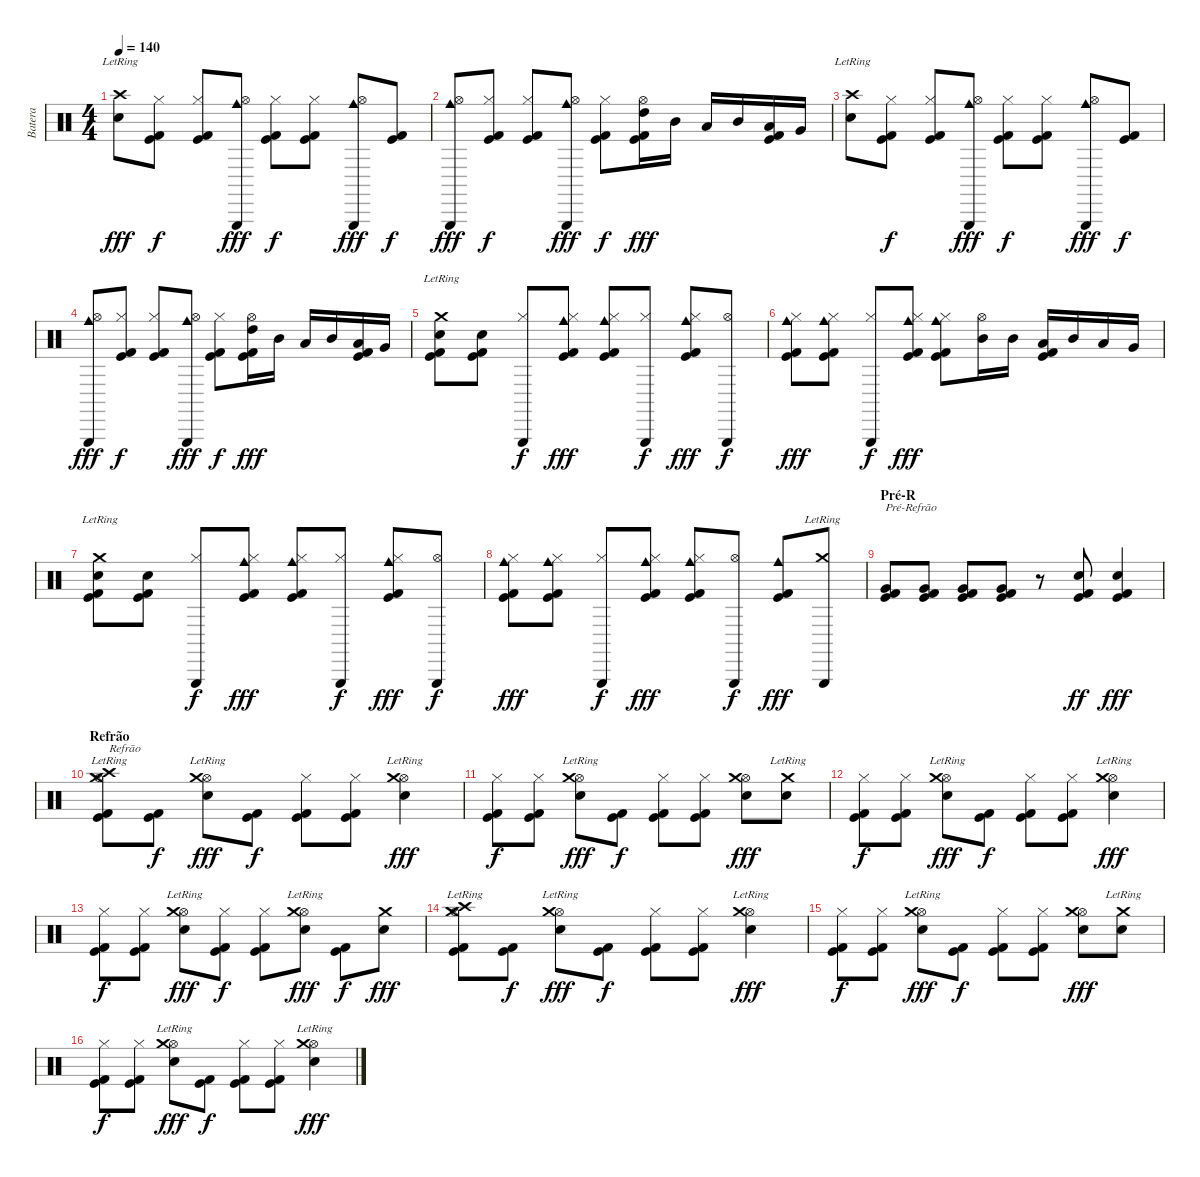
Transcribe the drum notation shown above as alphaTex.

\track ("Batera" "Batera") {instrument percussion}
\staff {score}
\articulation defaults
\ts (4 4)
\tempo 140
\clef neutral
\ks c
("Metronome (bell)" "Crash high (hit)"{lr}).8{dy fff} ("Hi-Hat (closed)" "Kick (hit)" "Kick (hit) 2").8{dy f} ("Hi-Hat (closed)" "Kick (hit)" "Kick (hit) 2").8 ("Hi-Hat (open)" "Cowbell medium (hit)" "Triangle (hit)").8{dy fff} ("Hi-Hat (closed)" "Kick (hit)" "Kick (hit) 2").8{dy f} ("Hi-Hat (closed)" "Kick (hit)" "Kick (hit) 2").8 ("Hi-Hat (open)" "Cowbell medium (hit)" "Triangle (hit)").8{dy fff} ("Kick (hit)" "Kick (hit) 2").8{dy f} |
("Hi-Hat (open)" "Cowbell medium (hit)" "Triangle (hit)").8{dy fff} ("Hi-Hat (closed)" "Kick (hit)" "Kick (hit) 2").8{dy f} ("Hi-Hat (closed)" "Kick (hit)" "Kick (hit) 2").8 ("Hi-Hat (open)" "Cowbell medium (hit)" "Triangle (hit)").8{dy fff} ("Hi-Hat (closed)" "Kick (hit)" "Kick (hit) 2").8{dy f} ("Hi-Hat (open)" "Kick (hit)" "High Tom (hit)" "Kick (hit) 2").16{dy fff} "Mid Tom (hit)".16 "Low Tom (hit)".16 "Mid Tom (hit)".16 ("Kick (hit)" "Low Tom (hit)" "Kick (hit) 2").16 "Very Low Tom (hit)".16 |
("Metronome (bell)" "Crash high (hit)"{lr}).8 ("Hi-Hat (closed)" "Kick (hit)" "Kick (hit) 2").8{dy f} ("Hi-Hat (closed)" "Kick (hit)" "Kick (hit) 2").8 ("Hi-Hat (open)" "Cowbell medium (hit)" "Triangle (hit)").8{dy fff} ("Hi-Hat (closed)" "Kick (hit)" "Kick (hit) 2").8{dy f} ("Hi-Hat (closed)" "Kick (hit)" "Kick (hit) 2").8 ("Hi-Hat (open)" "Cowbell medium (hit)" "Triangle (hit)").8{dy fff} ("Kick (hit)" "Kick (hit) 2").8{dy f} |
("Hi-Hat (open)" "Cowbell medium (hit)" "Triangle (hit)").8{dy fff} ("Hi-Hat (closed)" "Kick (hit)" "Kick (hit) 2").8{dy f} ("Hi-Hat (closed)" "Kick (hit)" "Kick (hit) 2").8 ("Hi-Hat (open)" "Cowbell medium (hit)" "Triangle (hit)").8{dy fff} ("Hi-Hat (closed)" "Kick (hit)" "Kick (hit) 2").8{dy f} ("Hi-Hat (open)" "Kick (hit)" "High Tom (hit)" "Kick (hit) 2").16{dy fff} "Mid Tom (hit)".16 "Low Tom (hit)".16 "Mid Tom (hit)".16 ("Kick (hit)" "Low Tom (hit)" "Kick (hit) 2").16 "Very Low Tom (hit)".16 |
("Kick (hit)" "Electric Snare (hit)" "Crash medium (hit)"{lr} "Kick (hit) 2").8 ("Kick (hit)" "Electric Snare (hit)" "Kick (hit) 2").8 ("Hi-Hat (closed)" "Triangle (hit)").8{dy f} ("Hi-Hat (closed)" "Kick (hit)" "Cowbell medium (hit)" "Kick (hit) 2").8{dy fff} ("Hi-Hat (closed)" "Kick (hit)" "Cowbell medium (hit)" "Kick (hit) 2").8 ("Hi-Hat (closed)" "Triangle (hit)").8{dy f} ("Hi-Hat (closed)" "Kick (hit)" "Cowbell medium (hit)" "Kick (hit) 2").8{dy fff} ("Hi-Hat (open)" "Triangle (hit)").8{dy f} |
("Hi-Hat (closed)" "Kick (hit)" "Cowbell medium (hit)" "Kick (hit) 2").8{dy fff} ("Hi-Hat (closed)" "Kick (hit)" "Cowbell medium (hit)" "Kick (hit) 2").8 ("Hi-Hat (closed)" "Triangle (hit)").8{dy f} ("Hi-Hat (closed)" "Kick (hit)" "Cowbell medium (hit)" "Kick (hit) 2").8{dy fff} ("Hi-Hat (closed)" "Kick (hit)" "Cowbell medium (hit)" "Kick (hit) 2").8 ("Hi-Hat (open)" "Mid Tom (hit)").16 "Mid Tom (hit)".16 ("Kick (hit)" "Low Tom (hit)" "Kick (hit) 2").16 "Mid Tom (hit)".16 "Low Tom (hit)".16 "Very Low Tom (hit)".16 |
("Kick (hit)" "Electric Snare (hit)" "Crash medium (hit)"{lr} "Kick (hit) 2").8 ("Kick (hit)" "Electric Snare (hit)" "Kick (hit) 2").8 ("Hi-Hat (closed)" "Triangle (hit)").8{dy f} ("Hi-Hat (closed)" "Kick (hit)" "Cowbell medium (hit)" "Kick (hit) 2").8{dy fff} ("Hi-Hat (closed)" "Kick (hit)" "Cowbell medium (hit)" "Kick (hit) 2").8 ("Hi-Hat (closed)" "Triangle (hit)").8{dy f} ("Hi-Hat (closed)" "Kick (hit)" "Cowbell medium (hit)" "Kick (hit) 2").8{dy fff} ("Hi-Hat (open)" "Triangle (hit)").8{dy f} |
("Hi-Hat (closed)" "Kick (hit)" "Cowbell medium (hit)" "Kick (hit) 2").8{dy fff} ("Hi-Hat (closed)" "Kick (hit)" "Cowbell medium (hit)" "Kick (hit) 2").8 ("Hi-Hat (closed)" "Triangle (hit)").8{dy f} ("Hi-Hat (closed)" "Kick (hit)" "Cowbell medium (hit)" "Kick (hit) 2").8{dy fff} ("Hi-Hat (closed)" "Kick (hit)" "Cowbell medium (hit)" "Kick (hit) 2").8 ("Hi-Hat (open)" "Triangle (hit)").8{dy f} ("Kick (hit)" "Cowbell medium (hit)" "Kick (hit) 2").8{dy fff} ("Crash medium (hit)"{lr} "Triangle (hit)").8 |
\section ("" "Pré-R")
("Kick (hit)" "Very Low Tom (hit)" "Kick (hit) 2").8{txt "Pré-Refrão"} ("Kick (hit)" "Very Low Tom (hit)" "Kick (hit) 2").8 ("Kick (hit)" "Very Low Tom (hit)" "Kick (hit) 2").8 ("Kick (hit)" "Very Low Tom (hit)" "Kick (hit) 2").8 r.8 ("Kick (hit)" "Metronome (bell)" "Kick (hit) 2").8{dy ff} ("Kick (hit)" "Metronome (bell)" "Kick (hit) 2").4{dy fff} |
\section ("" "Refrão")
("Hi-Hat (open)" "Kick (hit)" "Crash medium (hit)"{lr} "Crash high (hit)"{lr} "Kick (hit) 2").8{txt "Refrão"} ("Kick (hit)" "Kick (hit) 2").8{dy f} ("Hi-Hat (open)" "Electric Snare (hit)" "Crash medium (hit)"{lr}).8{dy fff} ("Kick (hit)" "Kick (hit) 2").8{dy f} ("Hi-Hat (closed)" "Kick (hit)" "Kick (hit) 2").8 ("Hi-Hat (closed)" "Kick (hit)" "Kick (hit) 2").8 ("Hi-Hat (open)" "Electric Snare (hit)" "Crash medium (hit)"{lr}).4{dy fff} |
("Hi-Hat (closed)" "Kick (hit)" "Kick (hit) 2").8{dy f} ("Hi-Hat (closed)" "Kick (hit)" "Kick (hit) 2").8 ("Hi-Hat (open)" "Electric Snare (hit)" "Crash medium (hit)"{lr}).8{dy fff} ("Kick (hit)" "Kick (hit) 2").8{dy f} ("Hi-Hat (closed)" "Kick (hit)" "Kick (hit) 2").8 ("Hi-Hat (closed)" "Kick (hit)" "Kick (hit) 2").8 ("Hi-Hat (open)" "Electric Snare (hit)" "Crash medium (hit)").8{dy fff} ("Electric Snare (hit)" "Crash medium (hit)"{lr}).8 |
("Hi-Hat (closed)" "Kick (hit)" "Kick (hit) 2").8{dy f} ("Hi-Hat (closed)" "Kick (hit)" "Kick (hit) 2").8 ("Hi-Hat (open)" "Electric Snare (hit)" "Crash medium (hit)"{lr}).8{dy fff} ("Kick (hit)" "Kick (hit) 2").8{dy f} ("Hi-Hat (closed)" "Kick (hit)" "Kick (hit) 2").8 ("Hi-Hat (closed)" "Kick (hit)" "Kick (hit) 2").8 ("Hi-Hat (open)" "Electric Snare (hit)" "Crash medium (hit)"{lr}).4{dy fff} |
("Hi-Hat (closed)" "Kick (hit)" "Kick (hit) 2").8{dy f} ("Hi-Hat (closed)" "Kick (hit)" "Kick (hit) 2").8 ("Hi-Hat (open)" "Electric Snare (hit)" "Crash medium (hit)"{lr}).8{dy fff} ("Hi-Hat (closed)" "Kick (hit)" "Kick (hit) 2").8{dy f} ("Hi-Hat (closed)" "Kick (hit)" "Kick (hit) 2").8 ("Hi-Hat (open)" "Electric Snare (hit)" "Crash medium (hit)"{lr}).8{dy fff} ("Kick (hit)" "Kick (hit) 2").8{dy f} ("Electric Snare (hit)" "Crash medium (hit)").8{dy fff} |
("Hi-Hat (open)" "Kick (hit)" "Crash medium (hit)"{lr} "Crash high (hit)"{lr} "Kick (hit) 2").8 ("Kick (hit)" "Kick (hit) 2").8{dy f} ("Hi-Hat (open)" "Electric Snare (hit)" "Crash medium (hit)"{lr}).8{dy fff} ("Kick (hit)" "Kick (hit) 2").8{dy f} ("Hi-Hat (closed)" "Kick (hit)" "Kick (hit) 2").8 ("Hi-Hat (closed)" "Kick (hit)" "Kick (hit) 2").8 ("Hi-Hat (open)" "Electric Snare (hit)" "Crash medium (hit)"{lr}).4{dy fff} |
("Hi-Hat (closed)" "Kick (hit)" "Kick (hit) 2").8{dy f} ("Hi-Hat (closed)" "Kick (hit)" "Kick (hit) 2").8 ("Hi-Hat (open)" "Electric Snare (hit)" "Crash medium (hit)"{lr}).8{dy fff} ("Kick (hit)" "Kick (hit) 2").8{dy f} ("Hi-Hat (closed)" "Kick (hit)" "Kick (hit) 2").8 ("Hi-Hat (closed)" "Kick (hit)" "Kick (hit) 2").8 ("Hi-Hat (open)" "Electric Snare (hit)" "Crash medium (hit)").8{dy fff} ("Electric Snare (hit)" "Crash medium (hit)"{lr}).8 |
("Hi-Hat (closed)" "Kick (hit)" "Kick (hit) 2").8{dy f} ("Hi-Hat (closed)" "Kick (hit)" "Kick (hit) 2").8 ("Hi-Hat (open)" "Electric Snare (hit)" "Crash medium (hit)"{lr}).8{dy fff} ("Kick (hit)" "Kick (hit) 2").8{dy f} ("Hi-Hat (closed)" "Kick (hit)" "Kick (hit) 2").8 ("Hi-Hat (closed)" "Kick (hit)" "Kick (hit) 2").8 ("Hi-Hat (open)" "Electric Snare (hit)" "Crash medium (hit)"{lr}).4{dy fff}
